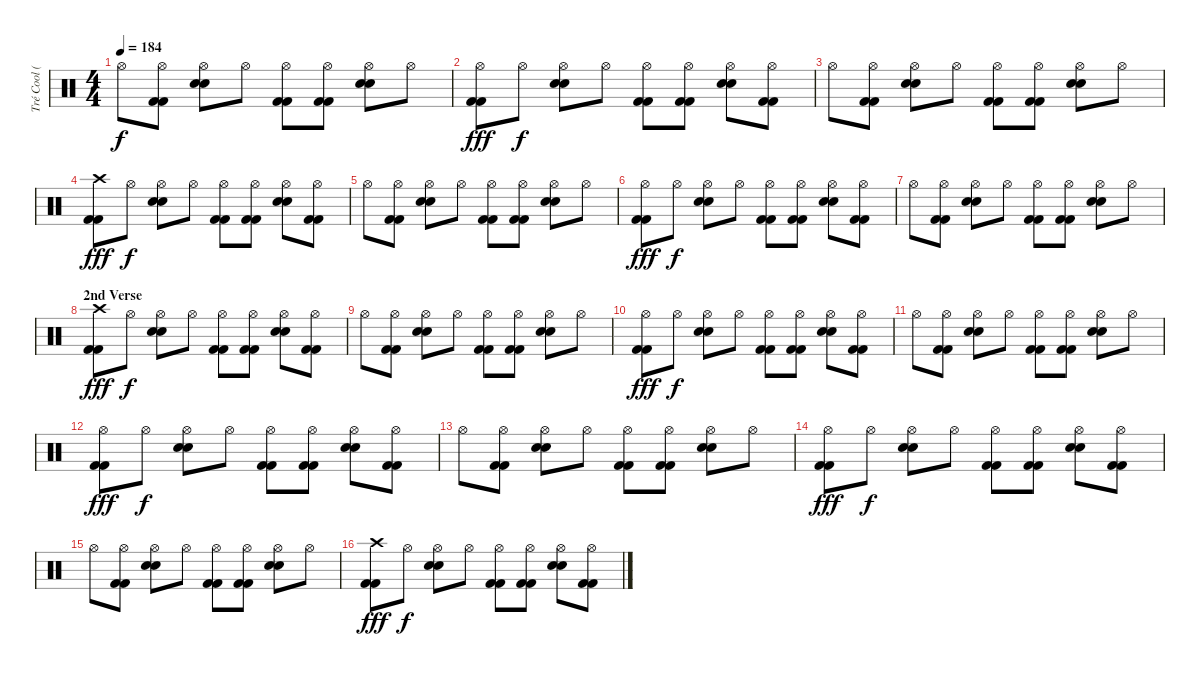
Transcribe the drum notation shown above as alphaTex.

\track ("Tré Cool (Drums)" "Tré Cool (") {instrument percussion}
\staff {score}
\articulation defaults
\ts (4 4)
\tempo 184
\clef neutral
\ks c "Hi-Hat (open)".8{dy f}
("Kick (hit) 2" "Kick (hit) 2" "Hi-Hat (open)").8 ("Electric Snare (hit)" "Electric Snare (hit)" "Hi-Hat (open)").8 "Hi-Hat (open)".8 ("Kick (hit) 2" "Kick (hit) 2" "Hi-Hat (open)").8 ("Kick (hit) 2" "Kick (hit) 2" "Hi-Hat (open)").8 ("Electric Snare (hit)" "Electric Snare (hit)" "Hi-Hat (open)").8 "Hi-Hat (open)".8 |
("Kick (hit) 2" "Kick (hit) 2" "Hi-Hat (open)").8{dy fff} "Hi-Hat (open)".8{dy f} ("Electric Snare (hit)" "Electric Snare (hit)" "Hi-Hat (open)").8 "Hi-Hat (open)".8 ("Kick (hit) 2" "Kick (hit) 2" "Hi-Hat (open)").8 ("Kick (hit) 2" "Kick (hit) 2" "Hi-Hat (open)").8 ("Electric Snare (hit)" "Electric Snare (hit)" "Hi-Hat (open)").8 ("Kick (hit) 2" "Kick (hit) 2" "Hi-Hat (open)").8 |
"Hi-Hat (open)".8 ("Kick (hit) 2" "Kick (hit) 2" "Hi-Hat (open)").8 ("Electric Snare (hit)" "Electric Snare (hit)" "Hi-Hat (open)").8 "Hi-Hat (open)".8 ("Kick (hit) 2" "Kick (hit) 2" "Hi-Hat (open)").8 ("Kick (hit) 2" "Kick (hit) 2" "Hi-Hat (open)").8 ("Electric Snare (hit)" "Electric Snare (hit)" "Hi-Hat (open)").8 "Hi-Hat (open)".8 |
("Kick (hit) 2" "Kick (hit) 2" "Crash high (hit)").8{dy fff} "Hi-Hat (open)".8{dy f} ("Electric Snare (hit)" "Electric Snare (hit)" "Hi-Hat (open)").8 "Hi-Hat (open)".8 ("Kick (hit) 2" "Kick (hit) 2" "Hi-Hat (open)").8 ("Kick (hit) 2" "Kick (hit) 2" "Hi-Hat (open)").8 ("Electric Snare (hit)" "Electric Snare (hit)" "Hi-Hat (open)").8 ("Kick (hit) 2" "Kick (hit) 2" "Hi-Hat (open)").8 |
"Hi-Hat (open)".8 ("Kick (hit) 2" "Kick (hit) 2" "Hi-Hat (open)").8 ("Electric Snare (hit)" "Electric Snare (hit)" "Hi-Hat (open)").8 "Hi-Hat (open)".8 ("Kick (hit) 2" "Kick (hit) 2" "Hi-Hat (open)").8 ("Kick (hit) 2" "Kick (hit) 2" "Hi-Hat (open)").8 ("Electric Snare (hit)" "Electric Snare (hit)" "Hi-Hat (open)").8 "Hi-Hat (open)".8 |
("Kick (hit) 2" "Kick (hit) 2" "Hi-Hat (open)").8{dy fff} "Hi-Hat (open)".8{dy f} ("Electric Snare (hit)" "Electric Snare (hit)" "Hi-Hat (open)").8 "Hi-Hat (open)".8 ("Kick (hit) 2" "Kick (hit) 2" "Hi-Hat (open)").8 ("Kick (hit) 2" "Kick (hit) 2" "Hi-Hat (open)").8 ("Electric Snare (hit)" "Electric Snare (hit)" "Hi-Hat (open)").8 ("Kick (hit) 2" "Kick (hit) 2" "Hi-Hat (open)").8 |
"Hi-Hat (open)".8 ("Kick (hit) 2" "Kick (hit) 2" "Hi-Hat (open)").8 ("Electric Snare (hit)" "Electric Snare (hit)" "Hi-Hat (open)").8 "Hi-Hat (open)".8 ("Kick (hit) 2" "Kick (hit) 2" "Hi-Hat (open)").8 ("Kick (hit) 2" "Kick (hit) 2" "Hi-Hat (open)").8 ("Electric Snare (hit)" "Electric Snare (hit)" "Hi-Hat (open)").8 "Hi-Hat (open)".8 |
\section ("" "2nd Verse")
("Kick (hit) 2" "Kick (hit) 2" "Crash high (hit)").8{dy fff} "Hi-Hat (open)".8{dy f} ("Electric Snare (hit)" "Electric Snare (hit)" "Hi-Hat (open)").8 "Hi-Hat (open)".8 ("Kick (hit) 2" "Kick (hit) 2" "Hi-Hat (open)").8 ("Kick (hit) 2" "Kick (hit) 2" "Hi-Hat (open)").8 ("Electric Snare (hit)" "Electric Snare (hit)" "Hi-Hat (open)").8 ("Kick (hit) 2" "Kick (hit) 2" "Hi-Hat (open)").8 |
"Hi-Hat (open)".8 ("Kick (hit) 2" "Kick (hit) 2" "Hi-Hat (open)").8 ("Electric Snare (hit)" "Electric Snare (hit)" "Hi-Hat (open)").8 "Hi-Hat (open)".8 ("Kick (hit) 2" "Kick (hit) 2" "Hi-Hat (open)").8 ("Kick (hit) 2" "Kick (hit) 2" "Hi-Hat (open)").8 ("Electric Snare (hit)" "Electric Snare (hit)" "Hi-Hat (open)").8 "Hi-Hat (open)".8 |
("Kick (hit) 2" "Kick (hit) 2" "Hi-Hat (open)").8{dy fff} "Hi-Hat (open)".8{dy f} ("Electric Snare (hit)" "Electric Snare (hit)" "Hi-Hat (open)").8 "Hi-Hat (open)".8 ("Kick (hit) 2" "Kick (hit) 2" "Hi-Hat (open)").8 ("Kick (hit) 2" "Kick (hit) 2" "Hi-Hat (open)").8 ("Electric Snare (hit)" "Electric Snare (hit)" "Hi-Hat (open)").8 ("Kick (hit) 2" "Kick (hit) 2" "Hi-Hat (open)").8 |
"Hi-Hat (open)".8 ("Kick (hit) 2" "Kick (hit) 2" "Hi-Hat (open)").8 ("Electric Snare (hit)" "Electric Snare (hit)" "Hi-Hat (open)").8 "Hi-Hat (open)".8 ("Kick (hit) 2" "Kick (hit) 2" "Hi-Hat (open)").8 ("Kick (hit) 2" "Kick (hit) 2" "Hi-Hat (open)").8 ("Electric Snare (hit)" "Electric Snare (hit)" "Hi-Hat (open)").8 "Hi-Hat (open)".8 |
("Kick (hit) 2" "Kick (hit) 2" "Hi-Hat (open)").8{dy fff} "Hi-Hat (open)".8{dy f} ("Electric Snare (hit)" "Electric Snare (hit)" "Hi-Hat (open)").8 "Hi-Hat (open)".8 ("Kick (hit) 2" "Kick (hit) 2" "Hi-Hat (open)").8 ("Kick (hit) 2" "Kick (hit) 2" "Hi-Hat (open)").8 ("Electric Snare (hit)" "Electric Snare (hit)" "Hi-Hat (open)").8 ("Kick (hit) 2" "Kick (hit) 2" "Hi-Hat (open)").8 |
"Hi-Hat (open)".8 ("Kick (hit) 2" "Kick (hit) 2" "Hi-Hat (open)").8 ("Electric Snare (hit)" "Electric Snare (hit)" "Hi-Hat (open)").8 "Hi-Hat (open)".8 ("Kick (hit) 2" "Kick (hit) 2" "Hi-Hat (open)").8 ("Kick (hit) 2" "Kick (hit) 2" "Hi-Hat (open)").8 ("Electric Snare (hit)" "Electric Snare (hit)" "Hi-Hat (open)").8 "Hi-Hat (open)".8 |
("Kick (hit) 2" "Kick (hit) 2" "Hi-Hat (open)").8{dy fff} "Hi-Hat (open)".8{dy f} ("Electric Snare (hit)" "Electric Snare (hit)" "Hi-Hat (open)").8 "Hi-Hat (open)".8 ("Kick (hit) 2" "Kick (hit) 2" "Hi-Hat (open)").8 ("Kick (hit) 2" "Kick (hit) 2" "Hi-Hat (open)").8 ("Electric Snare (hit)" "Electric Snare (hit)" "Hi-Hat (open)").8 ("Kick (hit) 2" "Kick (hit) 2" "Hi-Hat (open)").8 |
"Hi-Hat (open)".8 ("Kick (hit) 2" "Kick (hit) 2" "Hi-Hat (open)").8 ("Electric Snare (hit)" "Electric Snare (hit)" "Hi-Hat (open)").8 "Hi-Hat (open)".8 ("Kick (hit) 2" "Kick (hit) 2" "Hi-Hat (open)").8 ("Kick (hit) 2" "Kick (hit) 2" "Hi-Hat (open)").8 ("Electric Snare (hit)" "Electric Snare (hit)" "Hi-Hat (open)").8 "Hi-Hat (open)".8 |
("Kick (hit) 2" "Kick (hit) 2" "Crash high (hit)").8{dy fff} "Hi-Hat (open)".8{dy f} ("Electric Snare (hit)" "Electric Snare (hit)" "Hi-Hat (open)").8 "Hi-Hat (open)".8 ("Kick (hit) 2" "Kick (hit) 2" "Hi-Hat (open)").8 ("Kick (hit) 2" "Kick (hit) 2" "Hi-Hat (open)").8 ("Electric Snare (hit)" "Electric Snare (hit)" "Hi-Hat (open)").8 ("Kick (hit) 2" "Kick (hit) 2" "Hi-Hat (open)").8
